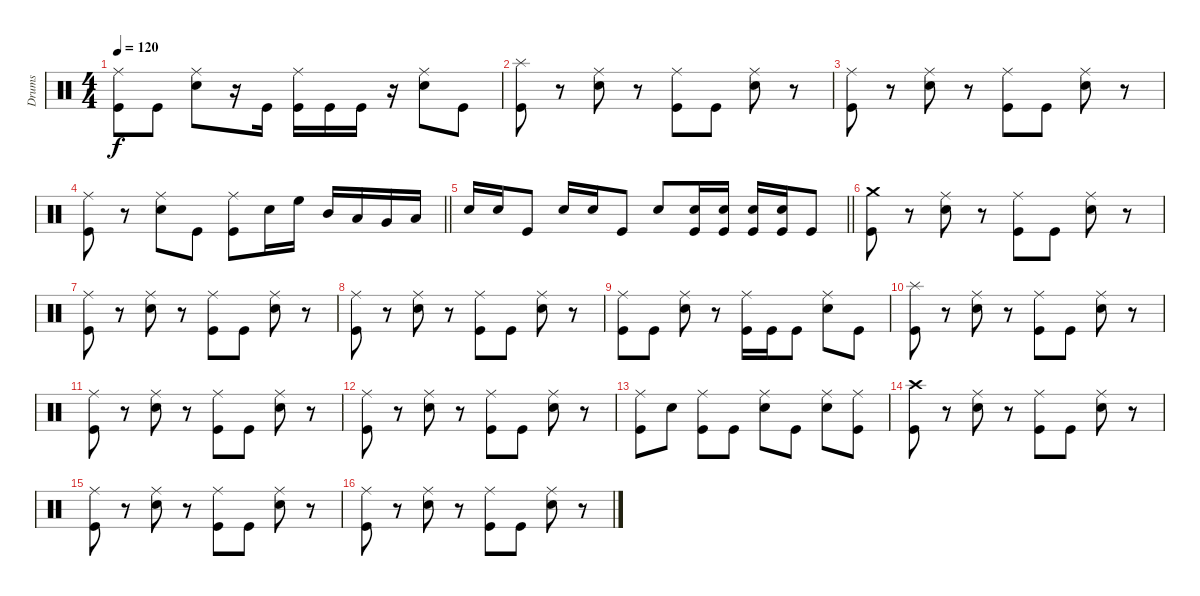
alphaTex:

\track ("Drums" "Drums") {instrument percussion}
\staff {score}
\articulation defaults
\ts (4 4)
\tempo 120
\clef neutral
\ks c
("Kick (hit)" "Ride (middle)").8{dy f} "Kick (hit)".8 ("Snare (hit) 2" "Ride (middle)").8 r.16 "Kick (hit)".16 ("Kick (hit)" "Ride (middle)").16 "Kick (hit)".16 "Kick (hit)".16 r.16 ("Snare (hit) 2" "Ride (middle)").8 "Kick (hit)".8 |
("Kick (hit)" "Splash (hit)").8 r.8 ("Snare (hit) 2" "Ride (middle)").8 r.8 ("Kick (hit)" "Ride (middle)").8 "Kick (hit)".8 ("Snare (hit) 2" "Ride (middle)").8 r.8 |
("Kick (hit)" "Ride (middle)").8 r.8 ("Snare (hit) 2" "Ride (middle)").8 r.8 ("Kick (hit)" "Ride (middle)").8 "Kick (hit)".8 ("Snare (hit) 2" "Ride (middle)").8 r.8 |
\barLineRight lightlight
("Kick (hit)" "Ride (middle)").8 r.8 ("Snare (hit) 2" "Ride (middle)").8 "Kick (hit)".8 ("Kick (hit)" "Ride (middle)").8 "Snare (hit) 2".16 "High Floor Tom (hit)".16 "Mid Tom (hit)".16 "Low Tom (hit)".16 "Very Low Tom (hit)".16 "Low Floor Tom (hit)".16 |
\barLineRight lightlight "Snare (hit) 2".16 "Snare (hit) 2".16 "Kick (hit)".8 "Snare (hit) 2".16 "Snare (hit) 2".16 "Kick (hit)".8 "Snare (hit) 2".8
("Kick (hit)" "Snare (hit) 2").16 ("Kick (hit)" "Snare (hit) 2").16 ("Kick (hit)" "Snare (hit) 2").16 ("Kick (hit)" "Snare (hit) 2").16 "Kick (hit)".8 |
("Kick (hit)" "Crash medium (hit)").8 r.8 ("Snare (hit) 2" "Ride (middle)").8 r.8 ("Kick (hit)" "Ride (middle)").8 "Kick (hit)".8 ("Snare (hit) 2" "Ride (middle)").8 r.8 |
("Kick (hit)" "Ride (middle)").8 r.8 ("Snare (hit) 2" "Ride (middle)").8 r.8 ("Kick (hit)" "Ride (middle)").8 "Kick (hit)".8 ("Snare (hit) 2" "Ride (middle)").8 r.8 |
("Kick (hit)" "Ride (middle)").8 r.8 ("Snare (hit) 2" "Ride (middle)").8 r.8 ("Kick (hit)" "Ride (middle)").8 "Kick (hit)".8 ("Snare (hit) 2" "Ride (middle)").8 r.8 |
("Kick (hit)" "Ride (middle)").8 "Kick (hit)".8 ("Snare (hit) 2" "Ride (middle)").8 r.8 ("Kick (hit)" "Ride (middle)").16 "Kick (hit)".16 "Kick (hit)".8 ("Snare (hit) 2" "Ride (middle)").8 "Kick (hit)".8 |
("Kick (hit)" "Splash (hit)").8 r.8 ("Snare (hit) 2" "Ride (middle)").8 r.8 ("Kick (hit)" "Ride (middle)").8 "Kick (hit)".8 ("Snare (hit) 2" "Ride (middle)").8 r.8 |
("Kick (hit)" "Ride (middle)").8 r.8 ("Snare (hit) 2" "Ride (middle)").8 r.8 ("Kick (hit)" "Ride (middle)").8 "Kick (hit)".8 ("Snare (hit) 2" "Ride (middle)").8 r.8 |
("Kick (hit)" "Ride (middle)").8 r.8 ("Snare (hit) 2" "Ride (middle)").8 r.8 ("Kick (hit)" "Ride (middle)").8 "Kick (hit)".8 ("Snare (hit) 2" "Ride (middle)").8 r.8 |
("Kick (hit)" "Ride (middle)").8 "Snare (hit) 2".8 ("Kick (hit)" "Ride (middle)").8 "Kick (hit)".8 ("Snare (hit) 2" "Ride (middle)").8 "Kick (hit)".8 ("Snare (hit) 2" "Ride (middle)").8 ("Kick (hit)" "Ride (middle)").8 |
("Kick (hit)" "Crash high (hit)").8 r.8 ("Snare (hit) 2" "Ride (middle)").8 r.8 ("Kick (hit)" "Ride (middle)").8 "Kick (hit)".8 ("Snare (hit) 2" "Ride (middle)").8 r.8 |
("Kick (hit)" "Ride (middle)").8 r.8 ("Snare (hit) 2" "Ride (middle)").8 r.8 ("Kick (hit)" "Ride (middle)").8 "Kick (hit)".8 ("Snare (hit) 2" "Ride (middle)").8 r.8 |
("Kick (hit)" "Ride (middle)").8 r.8 ("Snare (hit) 2" "Ride (middle)").8 r.8 ("Kick (hit)" "Ride (middle)").8 "Kick (hit)".8 ("Snare (hit) 2" "Ride (middle)").8 r.8
